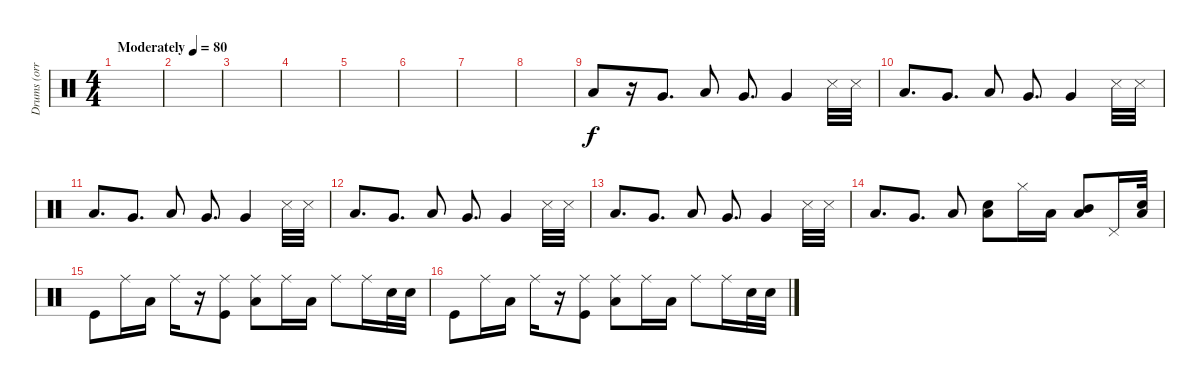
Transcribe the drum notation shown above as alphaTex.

\track ("Drums (orri páll dırason)" "Drums (orr") {instrument percussion}
\staff {score}
\articulation defaults
\ts (4 4)
\tempo (80 "Moderately")
\clef neutral
\ks c
|
|
|
|
|
|
|
|
"Low Floor Tom (hit)".8 r.16 "Very Low Tom (hit)".8{d} "Low Floor Tom (hit)".8 "Very Low Tom (hit)".8{d} "Very Low Tom (hit)".4 "Snare (side stick) 3".32 "Snare (side stick) 3".32 |
"Low Floor Tom (hit)".8{d} "Very Low Tom (hit)".8{d} "Low Floor Tom (hit)".8 "Very Low Tom (hit)".8{d} "Very Low Tom (hit)".4 "Snare (side stick) 3".32 "Snare (side stick) 3".32 |
"Low Floor Tom (hit)".8{d} "Very Low Tom (hit)".8{d} "Low Floor Tom (hit)".8 "Very Low Tom (hit)".8{d} "Very Low Tom (hit)".4 "Snare (side stick) 3".32 "Snare (side stick) 3".32 |
"Low Floor Tom (hit)".8{d} "Very Low Tom (hit)".8{d} "Low Floor Tom (hit)".8 "Very Low Tom (hit)".8{d} "Very Low Tom (hit)".4 "Snare (side stick) 3".32 "Snare (side stick) 3".32 |
"Low Floor Tom (hit)".8{d} "Very Low Tom (hit)".8{d} "Low Floor Tom (hit)".8 "Very Low Tom (hit)".8{d} "Very Low Tom (hit)".4 "Snare (side stick) 3".32 "Snare (side stick) 3".32 |
"Low Floor Tom (hit)".8{d} "Very Low Tom (hit)".8{d} "Low Floor Tom (hit)".8 ("Low Floor Tom (hit)" "Snare (hit) 2").8 "Hi-Hat (closed)".16 "Low Floor Tom (hit)".16 ("Mid Tom (hit)" "Low Floor Tom (hit)").8 "Pedal Hi-Hat (hit)".16 ("Electric Snare (hit)" "Low Floor Tom (hit)").32 |
"Kick (hit)".8{dy f} "Ride (middle)".16 "Low Tom (hit)".16 "Ride (middle)".16 r.16 ("Ride (middle)" "Kick (hit)").8 ("Ride (middle)" "Low Tom (hit)").8 "Ride (middle)".16 "Low Tom (hit)".16 "Ride (middle)".8 "Ride (middle)".16 "Electric Snare (hit)".32 "Electric Snare (hit)".32 |
"Kick (hit)".8 "Ride (middle)".16 "Low Tom (hit)".16 "Ride (middle)".16 r.16 ("Ride (middle)" "Kick (hit)").8 ("Ride (middle)" "Low Tom (hit)").8 "Ride (middle)".16 "Low Tom (hit)".16 "Ride (middle)".8 "Ride (middle)".16 "Electric Snare (hit)".32 "Electric Snare (hit)".32
